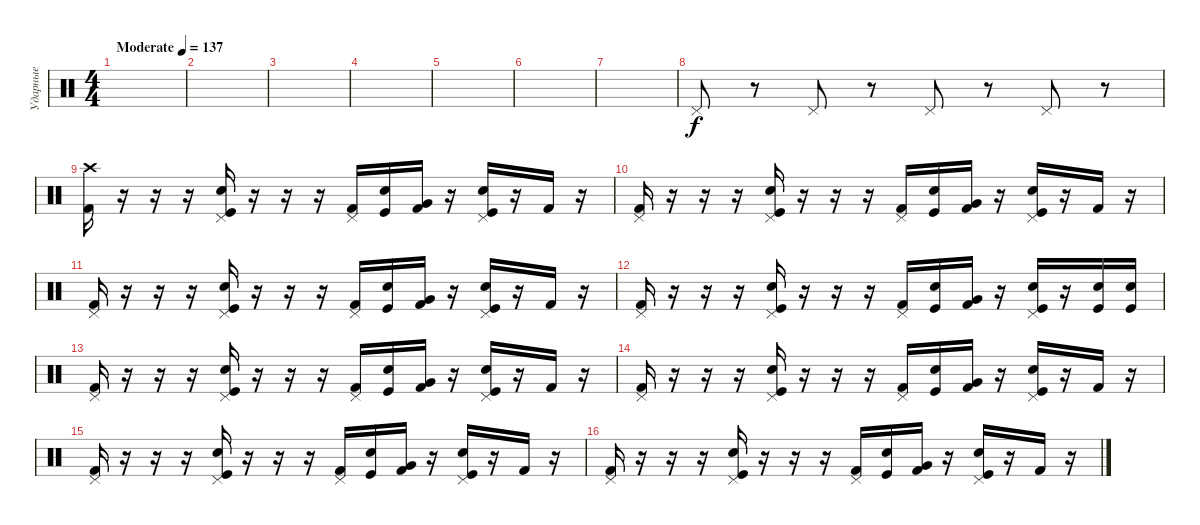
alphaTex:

\track ("Ударные" "Ударные") {instrument percussion}
\staff {score}
\articulation defaults
\ts (4 4)
\tempo (137 "Moderate")
\clef neutral
\ks c
|
|
|
|
|
|
|
"Pedal Hi-Hat (hit)".8 r.8 "Pedal Hi-Hat (hit)".8 r.8 "Pedal Hi-Hat (hit)".8 r.8 "Pedal Hi-Hat (hit)".8 r.8 |
("Crash high (hit)" "Kick (hit) 2").16 r.16 r.16 r.16 ("Pedal Hi-Hat (hit)" "Electric Snare (hit)" "Kick (hit)").16 r.16 r.16 r.16 ("Pedal Hi-Hat (hit)" "Kick (hit) 2").16 ("Electric Snare (hit)" "Kick (hit)").16 ("Very Low Tom (hit)" "Kick (hit) 2").16 r.16 ("Pedal Hi-Hat (hit)" "Electric Snare (hit)" "Kick (hit)").16 r.16 "Kick (hit) 2".16 r.16 |
("Pedal Hi-Hat (hit)" "Kick (hit) 2").16 r.16 r.16 r.16 ("Pedal Hi-Hat (hit)" "Electric Snare (hit)" "Kick (hit)").16 r.16 r.16 r.16 ("Pedal Hi-Hat (hit)" "Kick (hit) 2").16 ("Electric Snare (hit)" "Kick (hit)").16 ("Very Low Tom (hit)" "Kick (hit) 2").16 r.16 ("Pedal Hi-Hat (hit)" "Electric Snare (hit)" "Kick (hit)").16 r.16 "Kick (hit) 2".16 r.16 |
("Pedal Hi-Hat (hit)" "Kick (hit) 2").16 r.16 r.16 r.16 ("Pedal Hi-Hat (hit)" "Electric Snare (hit)" "Kick (hit)").16 r.16 r.16 r.16 ("Pedal Hi-Hat (hit)" "Kick (hit) 2").16 ("Electric Snare (hit)" "Kick (hit)").16 ("Very Low Tom (hit)" "Kick (hit) 2").16 r.16 ("Pedal Hi-Hat (hit)" "Electric Snare (hit)" "Kick (hit)").16 r.16 "Kick (hit) 2".16 r.16 |
("Pedal Hi-Hat (hit)" "Kick (hit) 2").16 r.16 r.16 r.16 ("Pedal Hi-Hat (hit)" "Electric Snare (hit)" "Kick (hit)").16 r.16 r.16 r.16 ("Pedal Hi-Hat (hit)" "Kick (hit) 2").16 ("Electric Snare (hit)" "Kick (hit)").16 ("Very Low Tom (hit)" "Kick (hit) 2").16 r.16 ("Pedal Hi-Hat (hit)" "Electric Snare (hit)" "Kick (hit)").16 r.16 ("Electric Snare (hit)" "Kick (hit)").16 ("Electric Snare (hit)" "Kick (hit)").16 |
("Pedal Hi-Hat (hit)" "Kick (hit) 2").16 r.16 r.16 r.16 ("Pedal Hi-Hat (hit)" "Electric Snare (hit)" "Kick (hit)").16 r.16 r.16 r.16 ("Pedal Hi-Hat (hit)" "Kick (hit) 2").16 ("Electric Snare (hit)" "Kick (hit)").16 ("Very Low Tom (hit)" "Kick (hit) 2").16 r.16 ("Pedal Hi-Hat (hit)" "Electric Snare (hit)" "Kick (hit)").16 r.16 "Kick (hit) 2".16 r.16 |
("Pedal Hi-Hat (hit)" "Kick (hit) 2").16 r.16 r.16 r.16 ("Pedal Hi-Hat (hit)" "Electric Snare (hit)" "Kick (hit)").16 r.16 r.16 r.16 ("Pedal Hi-Hat (hit)" "Kick (hit) 2").16 ("Electric Snare (hit)" "Kick (hit)").16 ("Very Low Tom (hit)" "Kick (hit) 2").16 r.16 ("Pedal Hi-Hat (hit)" "Electric Snare (hit)" "Kick (hit)").16 r.16 "Kick (hit) 2".16 r.16 |
("Pedal Hi-Hat (hit)" "Kick (hit) 2").16 r.16 r.16 r.16 ("Pedal Hi-Hat (hit)" "Electric Snare (hit)" "Kick (hit)").16 r.16 r.16 r.16 ("Pedal Hi-Hat (hit)" "Kick (hit) 2").16 ("Electric Snare (hit)" "Kick (hit)").16 ("Very Low Tom (hit)" "Kick (hit) 2").16 r.16 ("Pedal Hi-Hat (hit)" "Electric Snare (hit)" "Kick (hit)").16 r.16 "Kick (hit) 2".16 r.16 |
("Pedal Hi-Hat (hit)" "Kick (hit) 2").16 r.16 r.16 r.16 ("Pedal Hi-Hat (hit)" "Electric Snare (hit)" "Kick (hit)").16 r.16 r.16 r.16 ("Pedal Hi-Hat (hit)" "Kick (hit) 2").16 ("Electric Snare (hit)" "Kick (hit)").16 ("Very Low Tom (hit)" "Kick (hit) 2").16 r.16 ("Pedal Hi-Hat (hit)" "Electric Snare (hit)" "Kick (hit)").16 r.16 "Kick (hit) 2".16 r.16
